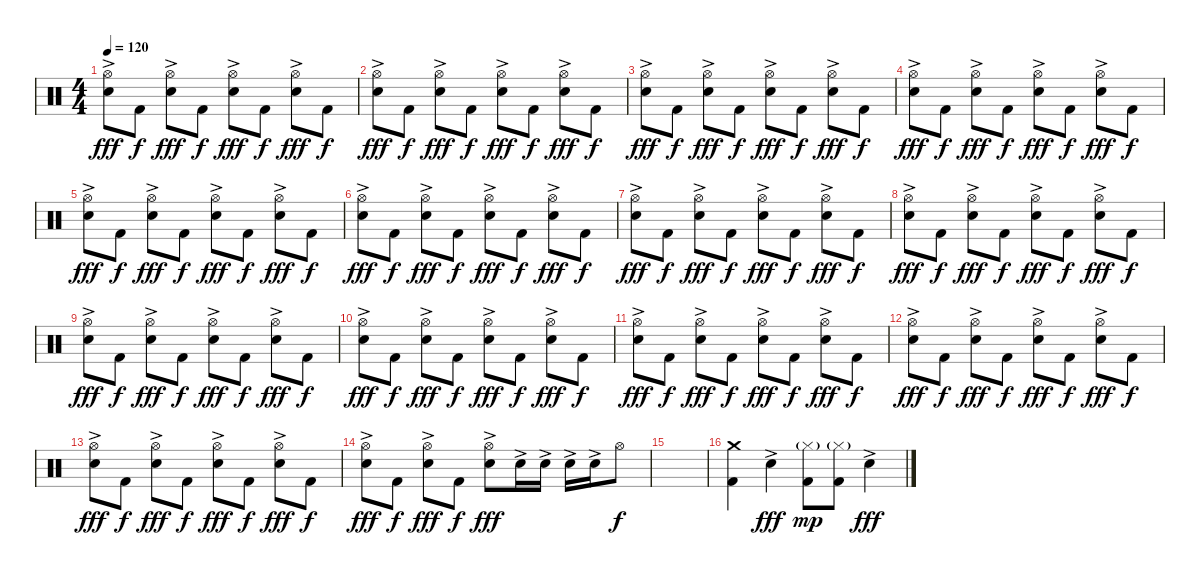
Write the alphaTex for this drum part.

\track "" {instrument percussion}
\staff {score}
\articulation defaults
\ts (4 4)
\tempo 120
\clef neutral
\ks c
("Electric Snare (hit)"{ac} "Hi-Hat (open)").8{dy fff} "Kick (hit) 2".8{dy f} ("Electric Snare (hit)"{ac} "Hi-Hat (open)").8{dy fff} "Kick (hit) 2".8{dy f} ("Electric Snare (hit)"{ac} "Hi-Hat (open)").8{dy fff} "Kick (hit) 2".8{dy f} ("Electric Snare (hit)"{ac} "Hi-Hat (open)").8{dy fff} "Kick (hit) 2".8{dy f} |
("Electric Snare (hit)"{ac} "Hi-Hat (open)").8{dy fff} "Kick (hit) 2".8{dy f} ("Electric Snare (hit)"{ac} "Hi-Hat (open)").8{dy fff} "Kick (hit) 2".8{dy f} ("Electric Snare (hit)"{ac} "Hi-Hat (open)").8{dy fff} "Kick (hit) 2".8{dy f} ("Electric Snare (hit)"{ac} "Hi-Hat (open)").8{dy fff} "Kick (hit) 2".8{dy f} |
("Electric Snare (hit)"{ac} "Hi-Hat (open)").8{dy fff} "Kick (hit) 2".8{dy f} ("Electric Snare (hit)"{ac} "Hi-Hat (open)").8{dy fff} "Kick (hit) 2".8{dy f} ("Electric Snare (hit)"{ac} "Hi-Hat (open)").8{dy fff} "Kick (hit) 2".8{dy f} ("Electric Snare (hit)"{ac} "Hi-Hat (open)").8{dy fff} "Kick (hit) 2".8{dy f} |
("Electric Snare (hit)"{ac} "Hi-Hat (open)").8{dy fff} "Kick (hit) 2".8{dy f} ("Electric Snare (hit)"{ac} "Hi-Hat (open)").8{dy fff} "Kick (hit) 2".8{dy f} ("Electric Snare (hit)"{ac} "Hi-Hat (open)").8{dy fff} "Kick (hit) 2".8{dy f} ("Electric Snare (hit)"{ac} "Hi-Hat (open)").8{dy fff} "Kick (hit) 2".8{dy f} |
("Electric Snare (hit)"{ac} "Hi-Hat (open)").8{dy fff} "Kick (hit) 2".8{dy f} ("Electric Snare (hit)"{ac} "Hi-Hat (open)").8{dy fff} "Kick (hit) 2".8{dy f} ("Electric Snare (hit)"{ac} "Hi-Hat (open)").8{dy fff} "Kick (hit) 2".8{dy f} ("Electric Snare (hit)"{ac} "Hi-Hat (open)").8{dy fff} "Kick (hit) 2".8{dy f} |
("Electric Snare (hit)"{ac} "Hi-Hat (open)").8{dy fff} "Kick (hit) 2".8{dy f} ("Electric Snare (hit)"{ac} "Hi-Hat (open)").8{dy fff} "Kick (hit) 2".8{dy f} ("Electric Snare (hit)"{ac} "Hi-Hat (open)").8{dy fff} "Kick (hit) 2".8{dy f} ("Electric Snare (hit)"{ac} "Hi-Hat (open)").8{dy fff} "Kick (hit) 2".8{dy f} |
("Electric Snare (hit)"{ac} "Hi-Hat (open)").8{dy fff} "Kick (hit) 2".8{dy f} ("Electric Snare (hit)"{ac} "Hi-Hat (open)").8{dy fff} "Kick (hit) 2".8{dy f} ("Electric Snare (hit)"{ac} "Hi-Hat (open)").8{dy fff} "Kick (hit) 2".8{dy f} ("Electric Snare (hit)"{ac} "Hi-Hat (open)").8{dy fff} "Kick (hit) 2".8{dy f} |
("Electric Snare (hit)"{ac} "Hi-Hat (open)").8{dy fff} "Kick (hit) 2".8{dy f} ("Electric Snare (hit)"{ac} "Hi-Hat (open)").8{dy fff} "Kick (hit) 2".8{dy f} ("Electric Snare (hit)"{ac} "Hi-Hat (open)").8{dy fff} "Kick (hit) 2".8{dy f} ("Electric Snare (hit)"{ac} "Hi-Hat (open)").8{dy fff} "Kick (hit) 2".8{dy f} |
("Electric Snare (hit)"{ac} "Hi-Hat (open)").8{dy fff} "Kick (hit) 2".8{dy f} ("Electric Snare (hit)"{ac} "Hi-Hat (open)").8{dy fff} "Kick (hit) 2".8{dy f} ("Electric Snare (hit)"{ac} "Hi-Hat (open)").8{dy fff} "Kick (hit) 2".8{dy f} ("Electric Snare (hit)"{ac} "Hi-Hat (open)").8{dy fff} "Kick (hit) 2".8{dy f} |
("Electric Snare (hit)"{ac} "Hi-Hat (open)").8{dy fff} "Kick (hit) 2".8{dy f} ("Electric Snare (hit)"{ac} "Hi-Hat (open)").8{dy fff} "Kick (hit) 2".8{dy f} ("Electric Snare (hit)"{ac} "Hi-Hat (open)").8{dy fff} "Kick (hit) 2".8{dy f} ("Electric Snare (hit)"{ac} "Hi-Hat (open)").8{dy fff} "Kick (hit) 2".8{dy f} |
("Electric Snare (hit)"{ac} "Hi-Hat (open)").8{dy fff} "Kick (hit) 2".8{dy f} ("Electric Snare (hit)"{ac} "Hi-Hat (open)").8{dy fff} "Kick (hit) 2".8{dy f} ("Electric Snare (hit)"{ac} "Hi-Hat (open)").8{dy fff} "Kick (hit) 2".8{dy f} ("Electric Snare (hit)"{ac} "Hi-Hat (open)").8{dy fff} "Kick (hit) 2".8{dy f} |
("Electric Snare (hit)"{ac} "Hi-Hat (open)").8{dy fff} "Kick (hit) 2".8{dy f} ("Electric Snare (hit)"{ac} "Hi-Hat (open)").8{dy fff} "Kick (hit) 2".8{dy f} ("Electric Snare (hit)"{ac} "Hi-Hat (open)").8{dy fff} "Kick (hit) 2".8{dy f} ("Electric Snare (hit)"{ac} "Hi-Hat (open)").8{dy fff} "Kick (hit) 2".8{dy f} |
("Electric Snare (hit)"{ac} "Hi-Hat (open)").8{dy fff} "Kick (hit) 2".8{dy f} ("Electric Snare (hit)"{ac} "Hi-Hat (open)").8{dy fff} "Kick (hit) 2".8{dy f} ("Electric Snare (hit)"{ac} "Hi-Hat (open)").8{dy fff} "Kick (hit) 2".8{dy f} ("Electric Snare (hit)"{ac} "Hi-Hat (open)").8{dy fff} "Kick (hit) 2".8{dy f} |
("Electric Snare (hit)"{ac} "Hi-Hat (open)").8{dy fff} "Kick (hit) 2".8{dy f} ("Electric Snare (hit)"{ac} "Hi-Hat (open)").8{dy fff} "Kick (hit) 2".8{dy f} ("Electric Snare (hit)"{ac} "Hi-Hat (open)").8{dy fff} "Electric Snare (hit)"{ac}.16 "Electric Snare (hit)"{ac}.16 "Electric Snare (hit)"{ac}.16 "Electric Snare (hit)"{ac}.16 "Hi-Hat (open)".8{dy f} |
|
("Kick (hit) 2" "Crash medium (hit)").4 "Electric Snare (hit)"{ac}.4{dy fff} ("Kick (hit) 2" "Hi-Hat (closed)"{g}).8{dy mp} ("Kick (hit) 2" "Hi-Hat (closed)"{g}).8 "Electric Snare (hit)"{ac}.4{dy fff}
